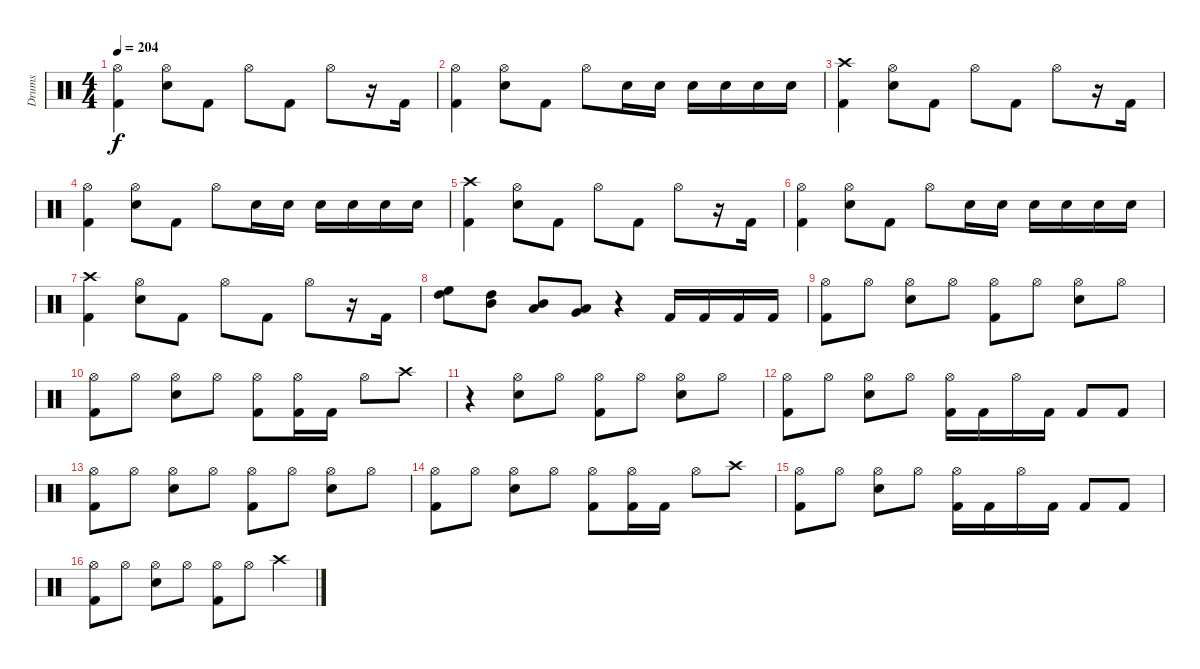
\track ("Drums" "Drums") {instrument percussion}
\staff {score}
\articulation defaults
\ts (4 4)
\tempo 204
\clef neutral
\ks c
("Hi-Hat (open)" "Kick (hit) 2").4{dy f} ("Hi-Hat (open)" "Snare (hit) 2").8 "Kick (hit) 2".8 "Hi-Hat (open)".8 "Kick (hit) 2".8 "Hi-Hat (open)".8 r.16 "Kick (hit) 2".16 |
("Hi-Hat (open)" "Kick (hit) 2").4 ("Hi-Hat (open)" "Snare (hit) 2").8 "Kick (hit) 2".8 "Hi-Hat (open)".8 "Snare (hit) 2".16 "Snare (hit) 2".16 "Snare (hit) 2".16 "Snare (hit) 2".16 "Snare (hit) 2".16 "Snare (hit) 2".16 |
("Crash high (hit)" "Kick (hit) 2").4 ("Hi-Hat (open)" "Snare (hit) 2").8 "Kick (hit) 2".8 "Hi-Hat (open)".8 "Kick (hit) 2".8 "Hi-Hat (open)".8 r.16 "Kick (hit) 2".16 |
("Hi-Hat (open)" "Kick (hit) 2").4 ("Hi-Hat (open)" "Snare (hit) 2").8 "Kick (hit) 2".8 "Hi-Hat (open)".8 "Snare (hit) 2".16 "Snare (hit) 2".16 "Snare (hit) 2".16 "Snare (hit) 2".16 "Snare (hit) 2".16 "Snare (hit) 2".16 |
("Crash high (hit)" "Kick (hit) 2").4 ("Hi-Hat (open)" "Snare (hit) 2").8 "Kick (hit) 2".8 "Hi-Hat (open)".8 "Kick (hit) 2".8 "Hi-Hat (open)".8 r.16 "Kick (hit) 2".16 |
("Hi-Hat (open)" "Kick (hit) 2").4 ("Hi-Hat (open)" "Snare (hit) 2").8 "Kick (hit) 2".8 "Hi-Hat (open)".8 "Snare (hit) 2".16 "Snare (hit) 2".16 "Snare (hit) 2".16 "Snare (hit) 2".16 "Snare (hit) 2".16 "Snare (hit) 2".16 |
("Crash high (hit)" "Kick (hit) 2").4 ("Hi-Hat (open)" "Snare (hit) 2").8 "Kick (hit) 2".8 "Hi-Hat (open)".8 "Kick (hit) 2".8 "Hi-Hat (open)".8 r.16 "Kick (hit) 2".16 |
("High Floor Tom (hit)" "High Tom (hit)").8 ("High Tom (hit)" "Mid Tom (hit)").8 ("Mid Tom (hit)" "Low Tom (hit)").8 ("Low Tom (hit)" "Very Low Tom (hit)").8 r.4 "Kick (hit) 2".16 "Kick (hit) 2".16 "Kick (hit) 2".16 "Kick (hit) 2".16 |
("Hi-Hat (open)" "Kick (hit) 2").8 "Hi-Hat (open)".8 ("Hi-Hat (open)" "Snare (hit) 2").8 "Hi-Hat (open)".8 ("Hi-Hat (open)" "Kick (hit) 2").8 "Hi-Hat (open)".8 ("Hi-Hat (open)" "Snare (hit) 2").8 "Hi-Hat (open)".8 |
("Hi-Hat (open)" "Kick (hit) 2").8 "Hi-Hat (open)".8 ("Hi-Hat (open)" "Snare (hit) 2").8 "Hi-Hat (open)".8 ("Hi-Hat (open)" "Kick (hit) 2").8 ("Hi-Hat (open)" "Kick (hit) 2").16 "Kick (hit) 2".16 "Hi-Hat (open)".8 "Crash high (hit)".8 |
r.4 ("Hi-Hat (open)" "Snare (hit) 2").8 "Hi-Hat (open)".8 ("Hi-Hat (open)" "Kick (hit) 2").8 "Hi-Hat (open)".8 ("Hi-Hat (open)" "Snare (hit) 2").8 "Hi-Hat (open)".8 |
("Hi-Hat (open)" "Kick (hit) 2").8 "Hi-Hat (open)".8 ("Hi-Hat (open)" "Snare (hit) 2").8 "Hi-Hat (open)".8 ("Hi-Hat (open)" "Kick (hit) 2").16 "Kick (hit) 2".16 "Hi-Hat (open)".16 "Kick (hit) 2".16 "Kick (hit) 2".8 "Kick (hit) 2".8 |
("Hi-Hat (open)" "Kick (hit) 2").8 "Hi-Hat (open)".8 ("Hi-Hat (open)" "Snare (hit) 2").8 "Hi-Hat (open)".8 ("Hi-Hat (open)" "Kick (hit) 2").8 "Hi-Hat (open)".8 ("Hi-Hat (open)" "Snare (hit) 2").8 "Hi-Hat (open)".8 |
("Hi-Hat (open)" "Kick (hit) 2").8 "Hi-Hat (open)".8 ("Hi-Hat (open)" "Snare (hit) 2").8 "Hi-Hat (open)".8 ("Hi-Hat (open)" "Kick (hit) 2").8 ("Hi-Hat (open)" "Kick (hit) 2").16 "Kick (hit) 2".16 "Hi-Hat (open)".8 "Crash high (hit)".8 |
("Hi-Hat (open)" "Kick (hit) 2").8 "Hi-Hat (open)".8 ("Hi-Hat (open)" "Snare (hit) 2").8 "Hi-Hat (open)".8 ("Hi-Hat (open)" "Kick (hit) 2").16 "Kick (hit) 2".16 "Hi-Hat (open)".16 "Kick (hit) 2".16 "Kick (hit) 2".8 "Kick (hit) 2".8 |
("Hi-Hat (open)" "Kick (hit) 2").8 "Hi-Hat (open)".8 ("Hi-Hat (open)" "Snare (hit) 2").8 "Hi-Hat (open)".8 ("Hi-Hat (open)" "Kick (hit) 2").8 "Hi-Hat (open)".8 "Crash high (hit)".4
